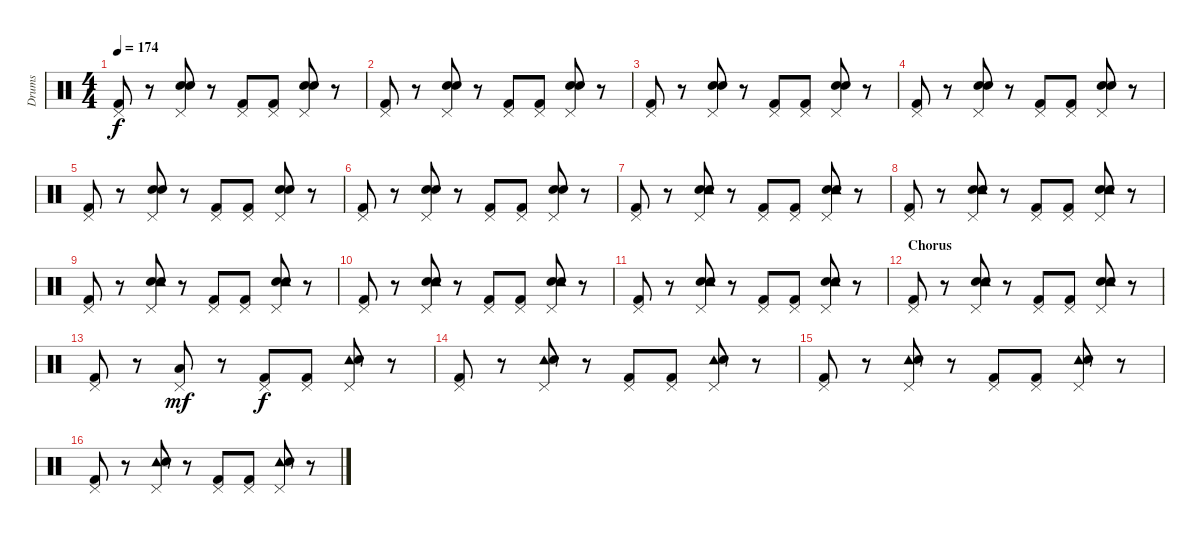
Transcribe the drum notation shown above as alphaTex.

\track ("Drums" "Drums") {instrument percussion}
\staff {score}
\articulation defaults
\ts (4 4)
\tempo 174
\clef neutral
\ks c
("Pedal Hi-Hat (hit)" "Kick (hit) 2").8{dy f} r.8 ("Pedal Hi-Hat (hit)" "Hand Clap (hit)" "Snare (hit) 2").8 r.8 ("Pedal Hi-Hat (hit)" "Kick (hit) 2").8 ("Pedal Hi-Hat (hit)" "Kick (hit) 2").8 ("Pedal Hi-Hat (hit)" "Hand Clap (hit)" "Snare (hit) 2").8 r.8 |
("Pedal Hi-Hat (hit)" "Kick (hit) 2").8 r.8 ("Pedal Hi-Hat (hit)" "Hand Clap (hit)" "Snare (hit) 2").8 r.8 ("Pedal Hi-Hat (hit)" "Kick (hit) 2").8 ("Pedal Hi-Hat (hit)" "Kick (hit) 2").8 ("Pedal Hi-Hat (hit)" "Hand Clap (hit)" "Snare (hit) 2").8 r.8 |
("Pedal Hi-Hat (hit)" "Kick (hit) 2").8 r.8 ("Pedal Hi-Hat (hit)" "Hand Clap (hit)" "Snare (hit) 2").8 r.8 ("Pedal Hi-Hat (hit)" "Kick (hit) 2").8 ("Pedal Hi-Hat (hit)" "Kick (hit) 2").8 ("Pedal Hi-Hat (hit)" "Hand Clap (hit)" "Snare (hit) 2").8 r.8 |
("Pedal Hi-Hat (hit)" "Kick (hit) 2").8 r.8 ("Pedal Hi-Hat (hit)" "Hand Clap (hit)" "Snare (hit) 2").8 r.8 ("Pedal Hi-Hat (hit)" "Kick (hit) 2").8 ("Pedal Hi-Hat (hit)" "Kick (hit) 2").8 ("Pedal Hi-Hat (hit)" "Hand Clap (hit)" "Snare (hit) 2").8 r.8 |
("Pedal Hi-Hat (hit)" "Kick (hit) 2").8 r.8 ("Pedal Hi-Hat (hit)" "Hand Clap (hit)" "Snare (hit) 2").8 r.8 ("Pedal Hi-Hat (hit)" "Kick (hit) 2").8 ("Pedal Hi-Hat (hit)" "Kick (hit) 2").8 ("Pedal Hi-Hat (hit)" "Hand Clap (hit)" "Snare (hit) 2").8 r.8 |
("Pedal Hi-Hat (hit)" "Kick (hit) 2").8 r.8 ("Pedal Hi-Hat (hit)" "Hand Clap (hit)" "Snare (hit) 2").8 r.8 ("Pedal Hi-Hat (hit)" "Kick (hit) 2").8 ("Pedal Hi-Hat (hit)" "Kick (hit) 2").8 ("Pedal Hi-Hat (hit)" "Hand Clap (hit)" "Snare (hit) 2").8 r.8 |
("Pedal Hi-Hat (hit)" "Kick (hit) 2").8 r.8 ("Pedal Hi-Hat (hit)" "Hand Clap (hit)" "Tambourine (hit)" "Snare (hit) 2").8 r.8 ("Pedal Hi-Hat (hit)" "Kick (hit) 2").8 ("Pedal Hi-Hat (hit)" "Kick (hit) 2").8 ("Pedal Hi-Hat (hit)" "Hand Clap (hit)" "Tambourine (hit)" "Snare (hit) 2").8 r.8 |
("Pedal Hi-Hat (hit)" "Kick (hit) 2").8 r.8 ("Pedal Hi-Hat (hit)" "Hand Clap (hit)" "Tambourine (hit)" "Snare (hit) 2").8 r.8 ("Pedal Hi-Hat (hit)" "Kick (hit) 2").8 ("Pedal Hi-Hat (hit)" "Kick (hit) 2").8 ("Pedal Hi-Hat (hit)" "Hand Clap (hit)" "Tambourine (hit)" "Snare (hit) 2").8 r.8 |
("Pedal Hi-Hat (hit)" "Kick (hit) 2").8 r.8 ("Pedal Hi-Hat (hit)" "Hand Clap (hit)" "Tambourine (hit)" "Snare (hit) 2").8 r.8 ("Pedal Hi-Hat (hit)" "Kick (hit) 2").8 ("Pedal Hi-Hat (hit)" "Kick (hit) 2").8 ("Pedal Hi-Hat (hit)" "Hand Clap (hit)" "Tambourine (hit)" "Snare (hit) 2").8 r.8 |
("Pedal Hi-Hat (hit)" "Kick (hit) 2").8 r.8 ("Pedal Hi-Hat (hit)" "Hand Clap (hit)" "Tambourine (hit)" "Snare (hit) 2").8 r.8 ("Pedal Hi-Hat (hit)" "Kick (hit) 2").8 ("Pedal Hi-Hat (hit)" "Kick (hit) 2").8 ("Pedal Hi-Hat (hit)" "Hand Clap (hit)" "Tambourine (hit)" "Snare (hit) 2").8 r.8 |
("Pedal Hi-Hat (hit)" "Kick (hit) 2").8 r.8 ("Pedal Hi-Hat (hit)" "Hand Clap (hit)" "Tambourine (hit)" "Snare (hit) 2").8 r.8 ("Pedal Hi-Hat (hit)" "Kick (hit) 2").8 ("Pedal Hi-Hat (hit)" "Kick (hit) 2").8 ("Pedal Hi-Hat (hit)" "Hand Clap (hit)" "Tambourine (hit)" "Snare (hit) 2").8 r.8 |
\section ("" "Chorus")
("Pedal Hi-Hat (hit)" "Kick (hit) 2").8 r.8 ("Pedal Hi-Hat (hit)" "Hand Clap (hit)" "Tambourine (hit)" "Snare (hit) 2").8 r.8 ("Pedal Hi-Hat (hit)" "Kick (hit) 2").8 ("Pedal Hi-Hat (hit)" "Kick (hit) 2").8 ("Pedal Hi-Hat (hit)" "Hand Clap (hit)" "Tambourine (hit)" "Snare (hit) 2").8 r.8 |
("Pedal Hi-Hat (hit)" "Kick (hit) 2").8 r.8 ("Pedal Hi-Hat (hit)" "Low Floor Tom (hit)").8{dy mf} r.8 ("Pedal Hi-Hat (hit)" "Kick (hit) 2").8{dy f} ("Pedal Hi-Hat (hit)" "Kick (hit) 2").8 ("Pedal Hi-Hat (hit)" "Tambourine (hit)" "Snare (hit) 2").8 r.8 |
("Pedal Hi-Hat (hit)" "Kick (hit) 2").8 r.8 ("Pedal Hi-Hat (hit)" "Tambourine (hit)" "Snare (hit) 2").8 r.8 ("Pedal Hi-Hat (hit)" "Kick (hit) 2").8 ("Pedal Hi-Hat (hit)" "Kick (hit) 2").8 ("Pedal Hi-Hat (hit)" "Tambourine (hit)" "Snare (hit) 2").8 r.8 |
("Pedal Hi-Hat (hit)" "Kick (hit) 2").8 r.8 ("Pedal Hi-Hat (hit)" "Tambourine (hit)" "Snare (hit) 2").8 r.8 ("Pedal Hi-Hat (hit)" "Kick (hit) 2").8 ("Pedal Hi-Hat (hit)" "Kick (hit) 2").8 ("Pedal Hi-Hat (hit)" "Tambourine (hit)" "Snare (hit) 2").8 r.8 |
("Pedal Hi-Hat (hit)" "Kick (hit) 2").8 r.8 ("Pedal Hi-Hat (hit)" "Tambourine (hit)" "Snare (hit) 2").8 r.8 ("Pedal Hi-Hat (hit)" "Kick (hit) 2").8 ("Pedal Hi-Hat (hit)" "Kick (hit) 2").8 ("Pedal Hi-Hat (hit)" "Tambourine (hit)" "Snare (hit) 2").8 r.8
